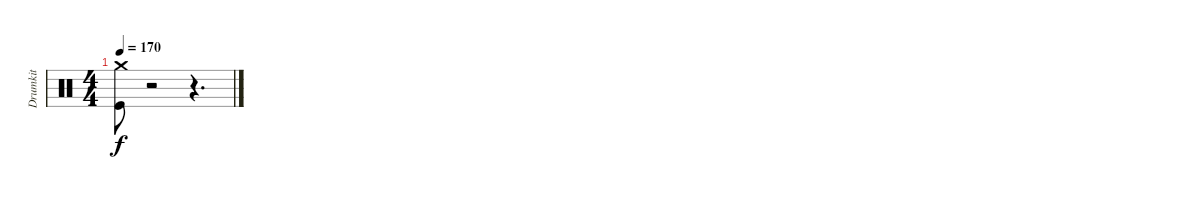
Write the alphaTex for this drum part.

\track ("Drumkit" "Drumkit") {instrument percussion}
\staff {score}
\articulation defaults
\ts (4 4)
\tempo 170
\clef neutral
\ks c
("Crash medium (hit)" "Kick (hit)").8{dy f} r.2 r.4{d}
